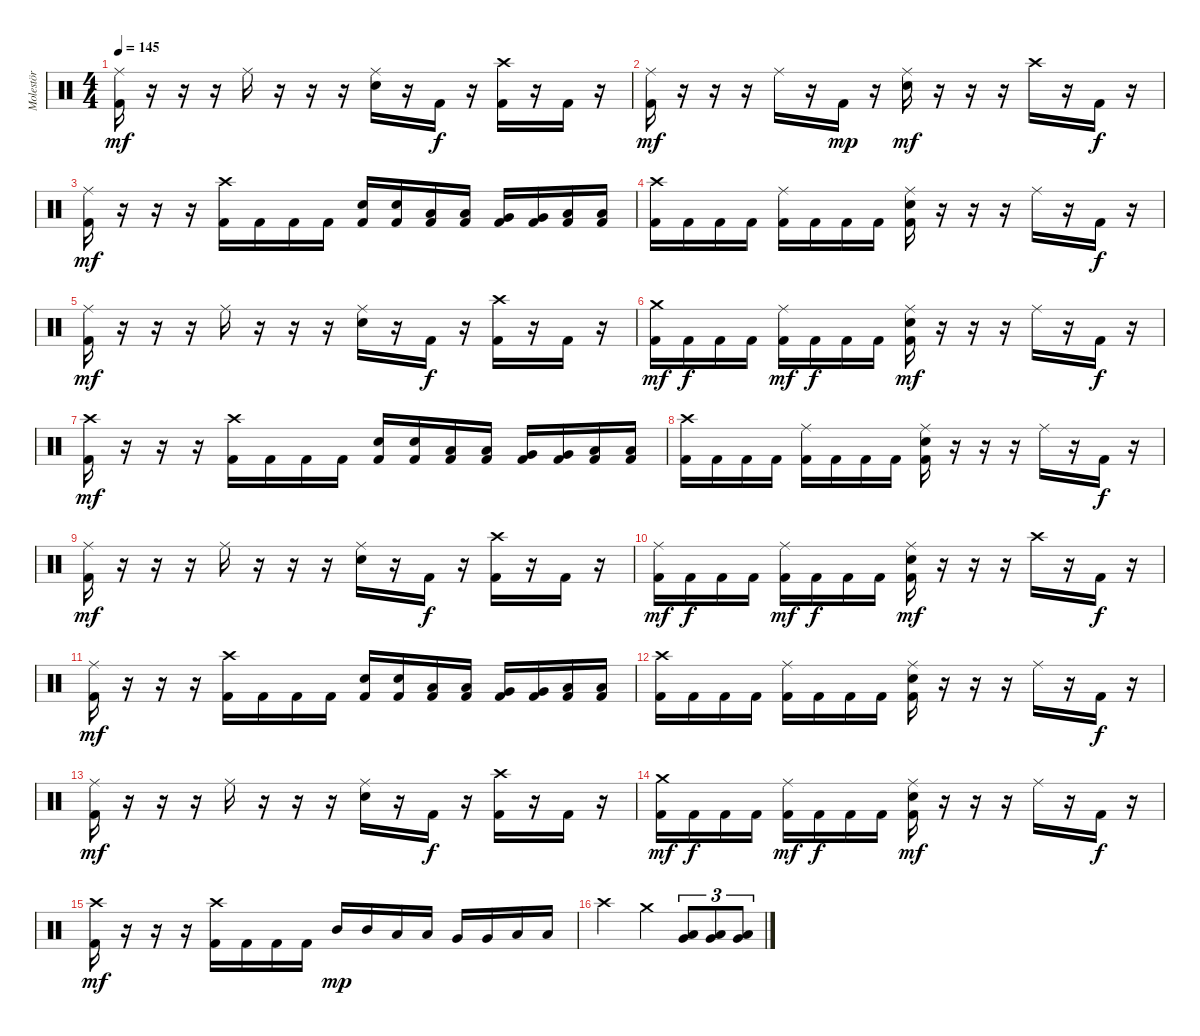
\track ("Molestör" "Molestör") {instrument percussion}
\staff {score}
\articulation defaults
\ts (4 4)
\tempo 145
\clef neutral
\ks c
("Ride (middle)" "Kick (hit) 2").16{dy mf} r.16 r.16 r.16 "Ride (middle)".16 r.16 r.16 r.16 ("Ride (middle)" "Electric Snare (hit)").16 r.16 "Kick (hit) 2".16{dy f} r.16 ("Crash high (hit)" "Kick (hit) 2").16 r.16 "Kick (hit) 2".16 r.16 |
("Ride (middle)" "Kick (hit) 2").16{dy mf} r.16 r.16 r.16 "Ride (middle)".16 r.16 "Kick (hit) 2".16{dy mp} r.16 ("Ride (middle)" "Electric Snare (hit)").16{dy mf} r.16 r.16 r.16 "Crash high (hit)".16 r.16 "Kick (hit) 2".16{dy f} r.16 |
("Ride (middle)" "Kick (hit) 2").16{dy mf} r.16 r.16 r.16 ("Crash high (hit)" "Kick (hit) 2").16 "Kick (hit) 2".16 "Kick (hit) 2".16 "Kick (hit) 2".16 ("Electric Snare (hit)" "Kick (hit) 2").16 ("Electric Snare (hit)" "Kick (hit) 2").16 ("Low Tom (hit)" "Kick (hit) 2").16 ("Low Tom (hit)" "Kick (hit) 2").16 ("Very Low Tom (hit)" "Kick (hit) 2").16 ("Very Low Tom (hit)" "Kick (hit) 2").16 ("Low Floor Tom (hit)" "Kick (hit) 2").16 ("Low Floor Tom (hit)" "Kick (hit) 2").16 |
("Crash high (hit)" "Kick (hit) 2").16 "Kick (hit) 2".16 "Kick (hit) 2".16 "Kick (hit) 2".16 ("Ride (middle)" "Kick (hit) 2").16 "Kick (hit) 2".16 "Kick (hit) 2".16 "Kick (hit) 2".16 ("Ride (middle)" "Electric Snare (hit)" "Kick (hit) 2").16 r.16 r.16 r.16 "Ride (middle)".16 r.16 "Kick (hit) 2".16{dy f} r.16 |
("Ride (middle)" "Kick (hit) 2").16{dy mf} r.16 r.16 r.16 "Ride (middle)".16 r.16 r.16 r.16 ("Ride (middle)" "Electric Snare (hit)").16 r.16 "Kick (hit) 2".16{dy f} r.16 ("Crash high (hit)" "Kick (hit) 2").16 r.16 "Kick (hit) 2".16 r.16 |
("Crash medium (hit)" "Kick (hit) 2").16{dy mf} "Kick (hit) 2".16{dy f} "Kick (hit) 2".16 "Kick (hit) 2".16 ("Ride (middle)" "Kick (hit) 2").16{dy mf} "Kick (hit) 2".16{dy f} "Kick (hit) 2".16 "Kick (hit) 2".16 ("Ride (middle)" "Electric Snare (hit)" "Kick (hit) 2").16{dy mf} r.16 r.16 r.16 "Ride (middle)".16 r.16 "Kick (hit) 2".16{dy f} r.16 |
("Crash high (hit)" "Kick (hit) 2").16{dy mf} r.16 r.16 r.16 ("Crash high (hit)" "Kick (hit) 2").16 "Kick (hit) 2".16 "Kick (hit) 2".16 "Kick (hit) 2".16 ("Electric Snare (hit)" "Kick (hit) 2").16 ("Electric Snare (hit)" "Kick (hit) 2").16 ("Low Tom (hit)" "Kick (hit) 2").16 ("Low Tom (hit)" "Kick (hit) 2").16 ("Very Low Tom (hit)" "Kick (hit) 2").16 ("Very Low Tom (hit)" "Kick (hit) 2").16 ("Low Floor Tom (hit)" "Kick (hit) 2").16 ("Low Floor Tom (hit)" "Kick (hit) 2").16 |
("Crash high (hit)" "Kick (hit) 2").16 "Kick (hit) 2".16 "Kick (hit) 2".16 "Kick (hit) 2".16 ("Ride (middle)" "Kick (hit) 2").16 "Kick (hit) 2".16 "Kick (hit) 2".16 "Kick (hit) 2".16 ("Ride (middle)" "Electric Snare (hit)" "Kick (hit) 2").16 r.16 r.16 r.16 "Ride (middle)".16 r.16 "Kick (hit) 2".16{dy f} r.16 |
("Ride (middle)" "Kick (hit) 2").16{dy mf} r.16 r.16 r.16 "Ride (middle)".16 r.16 r.16 r.16 ("Ride (middle)" "Electric Snare (hit)").16 r.16 "Kick (hit) 2".16{dy f} r.16 ("Crash high (hit)" "Kick (hit) 2").16 r.16 "Kick (hit) 2".16 r.16 |
("Ride (middle)" "Kick (hit) 2").16{dy mf} "Kick (hit) 2".16{dy f} "Kick (hit) 2".16 "Kick (hit) 2".16 ("Ride (middle)" "Kick (hit) 2").16{dy mf} "Kick (hit) 2".16{dy f} "Kick (hit) 2".16 "Kick (hit) 2".16 ("Ride (middle)" "Electric Snare (hit)" "Kick (hit) 2").16{dy mf} r.16 r.16 r.16 "Crash high (hit)".16 r.16 "Kick (hit) 2".16{dy f} r.16 |
("Ride (middle)" "Kick (hit) 2").16{dy mf} r.16 r.16 r.16 ("Crash high (hit)" "Kick (hit) 2").16 "Kick (hit) 2".16 "Kick (hit) 2".16 "Kick (hit) 2".16 ("Electric Snare (hit)" "Kick (hit) 2").16 ("Electric Snare (hit)" "Kick (hit) 2").16 ("Low Tom (hit)" "Kick (hit) 2").16 ("Low Tom (hit)" "Kick (hit) 2").16 ("Very Low Tom (hit)" "Kick (hit) 2").16 ("Very Low Tom (hit)" "Kick (hit) 2").16 ("Low Floor Tom (hit)" "Kick (hit) 2").16 ("Low Floor Tom (hit)" "Kick (hit) 2").16 |
("Crash high (hit)" "Kick (hit) 2").16 "Kick (hit) 2".16 "Kick (hit) 2".16 "Kick (hit) 2".16 ("Ride (middle)" "Kick (hit) 2").16 "Kick (hit) 2".16 "Kick (hit) 2".16 "Kick (hit) 2".16 ("Ride (middle)" "Electric Snare (hit)" "Kick (hit) 2").16 r.16 r.16 r.16 "Ride (middle)".16 r.16 "Kick (hit) 2".16{dy f} r.16 |
("Ride (middle)" "Kick (hit) 2").16{dy mf} r.16 r.16 r.16 "Ride (middle)".16 r.16 r.16 r.16 ("Ride (middle)" "Electric Snare (hit)").16 r.16 "Kick (hit) 2".16{dy f} r.16 ("Crash high (hit)" "Kick (hit) 2").16 r.16 "Kick (hit) 2".16 r.16 |
("Crash medium (hit)" "Kick (hit) 2").16{dy mf} "Kick (hit) 2".16{dy f} "Kick (hit) 2".16 "Kick (hit) 2".16 ("Ride (middle)" "Kick (hit) 2").16{dy mf} "Kick (hit) 2".16{dy f} "Kick (hit) 2".16 "Kick (hit) 2".16 ("Ride (middle)" "Electric Snare (hit)" "Kick (hit) 2").16{dy mf} r.16 r.16 r.16 "Ride (middle)".16 r.16 "Kick (hit) 2".16{dy f} r.16 |
("Crash high (hit)" "Kick (hit) 2").16{dy mf} r.16 r.16 r.16 ("Crash high (hit)" "Kick (hit) 2").16 "Kick (hit) 2".16 "Kick (hit) 2".16 "Kick (hit) 2".16 "Mid Tom (hit)".16{dy mp} "Mid Tom (hit)".16 "Low Tom (hit)".16 "Low Tom (hit)".16 "Very Low Tom (hit)".16 "Very Low Tom (hit)".16 "Low Floor Tom (hit)".16 "Low Floor Tom (hit)".16 |
"Crash high (hit)".2 "Crash medium (hit)".4 ("Low Tom (hit)" "Very Low Tom (hit)").8{tu (3 2)} ("Low Tom (hit)" "Very Low Tom (hit)").8{tu (3 2)} ("Low Tom (hit)" "Very Low Tom (hit)").8{tu (3 2)}
